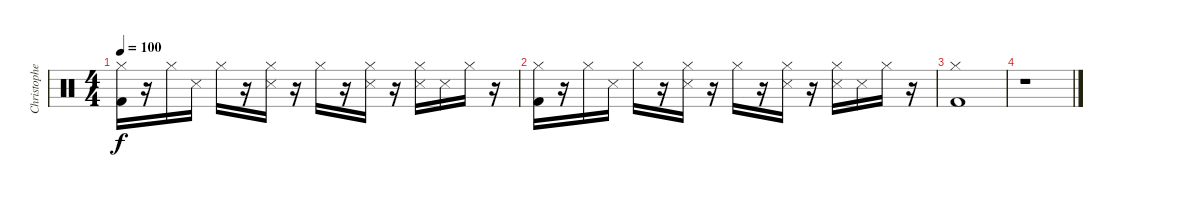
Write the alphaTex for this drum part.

\track ("Christopher - Drums" "Christophe") {instrument percussion}
\staff {score}
\articulation defaults
\ts (4 4)
\tempo 100
\clef neutral
\ks c
("Hi-Hat (closed)" "Kick (hit) 2").16{dy f} r.16 "Hi-Hat (closed)".16 "Snare (side stick) 3".16 "Hi-Hat (closed)".16 r.16 ("Hi-Hat (closed)" "Snare (side stick) 3").16 r.16 "Hi-Hat (closed)".16 r.16 ("Hi-Hat (closed)" "Snare (side stick) 3").16 r.16 ("Hi-Hat (closed)" "Snare (side stick) 3").16 "Snare (side stick) 3".16 "Hi-Hat (closed)".16 r.16 |
("Hi-Hat (closed)" "Kick (hit) 2").16 r.16 "Hi-Hat (closed)".16 "Snare (side stick) 3".16 "Hi-Hat (closed)".16 r.16 ("Hi-Hat (closed)" "Snare (side stick) 3").16 r.16 "Hi-Hat (closed)".16 r.16 ("Hi-Hat (closed)" "Snare (side stick) 3").16 r.16 ("Hi-Hat (closed)" "Snare (side stick) 3").16 "Snare (side stick) 3".16 "Hi-Hat (closed)".16 r.16 |
("Hi-Hat (closed)" "Kick (hit) 2").1 |
r.1
